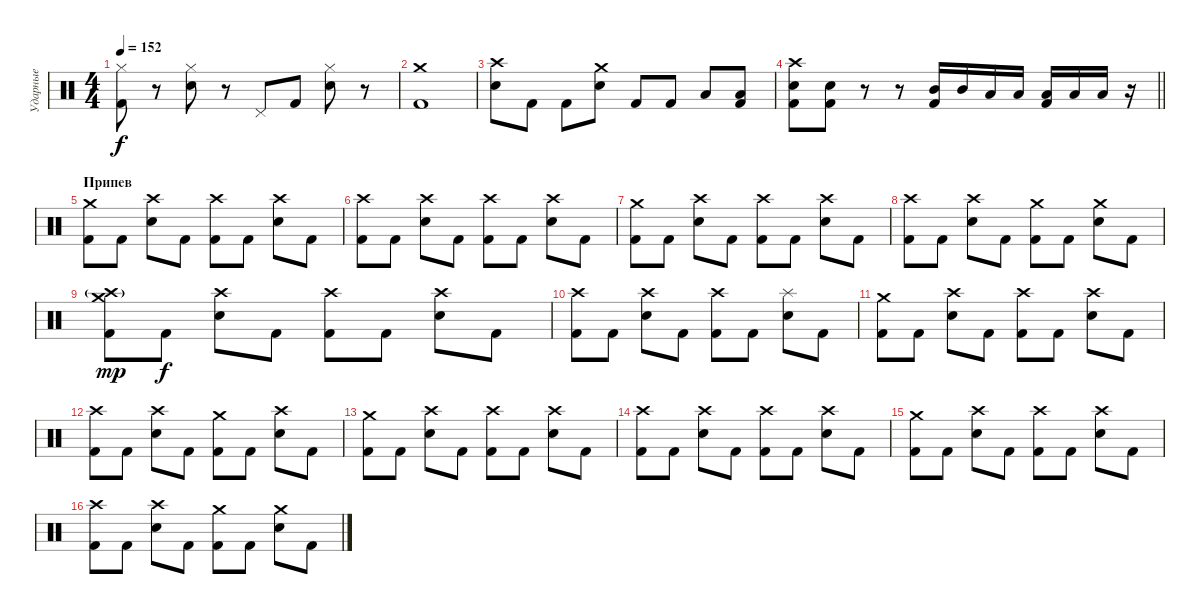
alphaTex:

\track ("Ударные" "Ударные") {instrument percussion}
\staff {score}
\articulation defaults
\ts (4 4)
\tempo 152
\clef neutral
\ks c
("Hi-Hat (closed)" "Kick (hit) 2").8{dy f} r.8 ("Hi-Hat (closed)" "Snare (hit) 2").8 r.8 "Pedal Hi-Hat (hit)".8 "Kick (hit) 2".8 ("Hi-Hat (closed)" "Snare (hit) 2").8 r.8 |
("Crash medium (hit)" "Kick (hit) 2").1 |
("Crash high (hit)" "Snare (hit) 2").8 "Kick (hit) 2".8 "Kick (hit) 2".8 ("Crash medium (hit)" "Snare (hit) 2").8 "Kick (hit) 2".8 "Kick (hit) 2".8 "Low Floor Tom (hit)".8 ("Low Tom (hit)" "Kick (hit) 2").8 |
\barLineRight lightlight
("Crash high (hit)" "Snare (hit) 2" "Kick (hit) 2").8 ("Snare (hit) 2" "Kick (hit) 2").8 r.8 r.8 ("Mid Tom (hit)" "Kick (hit) 2").16 "Mid Tom (hit)".16 "Low Tom (hit)".16 "Low Tom (hit)".16 ("Low Floor Tom (hit)" "Kick (hit) 2").16 "Low Floor Tom (hit)".16 "Low Tom (hit)".16 r.16 |
\section ("" "Припев")
("Crash medium (hit)" "Kick (hit) 2").8 "Kick (hit) 2".8 ("Crash high (hit)" "Snare (hit) 2").8 "Kick (hit) 2".8 ("Crash high (hit)" "Kick (hit) 2").8 "Kick (hit) 2".8 ("Crash high (hit)" "Snare (hit) 2").8 "Kick (hit) 2".8 |
("Crash high (hit)" "Kick (hit) 2").8 "Kick (hit) 2".8 ("Crash high (hit)" "Snare (hit) 2").8 "Kick (hit) 2".8 ("Crash high (hit)" "Kick (hit) 2").8 "Kick (hit) 2".8 ("Crash high (hit)" "Snare (hit) 2").8 "Kick (hit) 2".8 |
("Crash medium (hit)" "Kick (hit) 2").8 "Kick (hit) 2".8 ("Crash high (hit)" "Snare (hit) 2").8 "Kick (hit) 2".8 ("Crash high (hit)" "Kick (hit) 2").8 "Kick (hit) 2".8 ("Crash high (hit)" "Snare (hit) 2").8 "Kick (hit) 2".8 |
("Crash high (hit)" "Kick (hit) 2").8 "Kick (hit) 2".8 ("Crash high (hit)" "Snare (hit) 2").8 "Kick (hit) 2".8 ("Crash medium (hit)" "Kick (hit) 2").8 "Kick (hit) 2".8 ("Crash medium (hit)" "Snare (hit) 2").8 "Kick (hit) 2".8 |
("Crash medium (hit)" "Crash high (hit)"{g} "Kick (hit) 2").8{dy mp} "Kick (hit) 2".8{dy f} ("Crash high (hit)" "Snare (hit) 2").8 "Kick (hit) 2".8 ("Crash high (hit)" "Kick (hit) 2").8 "Kick (hit) 2".8 ("Crash high (hit)" "Snare (hit) 2").8 "Kick (hit) 2".8 |
("Crash high (hit)" "Kick (hit) 2").8 "Kick (hit) 2".8 ("Crash high (hit)" "Snare (hit) 2").8 "Kick (hit) 2".8 ("Crash high (hit)" "Kick (hit) 2").8 "Kick (hit) 2".8 ("Splash (hit)" "Snare (hit) 2").8 "Kick (hit) 2".8 |
("Crash medium (hit)" "Kick (hit) 2").8 "Kick (hit) 2".8 ("Crash high (hit)" "Snare (hit) 2").8 "Kick (hit) 2".8 ("Crash high (hit)" "Kick (hit) 2").8 "Kick (hit) 2".8 ("Crash high (hit)" "Snare (hit) 2").8 "Kick (hit) 2".8 |
("Crash high (hit)" "Kick (hit) 2").8 "Kick (hit) 2".8 ("Crash high (hit)" "Snare (hit) 2").8 "Kick (hit) 2".8 ("Crash medium (hit)" "Kick (hit) 2").8 "Kick (hit) 2".8 ("Crash high (hit)" "Snare (hit) 2").8 "Kick (hit) 2".8 |
("Crash medium (hit)" "Kick (hit) 2").8 "Kick (hit) 2".8 ("Crash high (hit)" "Snare (hit) 2").8 "Kick (hit) 2".8 ("Crash high (hit)" "Kick (hit) 2").8 "Kick (hit) 2".8 ("Crash high (hit)" "Snare (hit) 2").8 "Kick (hit) 2".8 |
("Crash high (hit)" "Kick (hit) 2").8 "Kick (hit) 2".8 ("Crash high (hit)" "Snare (hit) 2").8 "Kick (hit) 2".8 ("Crash high (hit)" "Kick (hit) 2").8 "Kick (hit) 2".8 ("Crash high (hit)" "Snare (hit) 2").8 "Kick (hit) 2".8 |
("Crash medium (hit)" "Kick (hit) 2").8 "Kick (hit) 2".8 ("Crash high (hit)" "Snare (hit) 2").8 "Kick (hit) 2".8 ("Crash high (hit)" "Kick (hit) 2").8 "Kick (hit) 2".8 ("Crash high (hit)" "Snare (hit) 2").8 "Kick (hit) 2".8 |
("Crash high (hit)" "Kick (hit) 2").8 "Kick (hit) 2".8 ("Crash high (hit)" "Snare (hit) 2").8 "Kick (hit) 2".8 ("Crash medium (hit)" "Kick (hit) 2").8 "Kick (hit) 2".8 ("Crash medium (hit)" "Snare (hit) 2").8 "Kick (hit) 2".8
